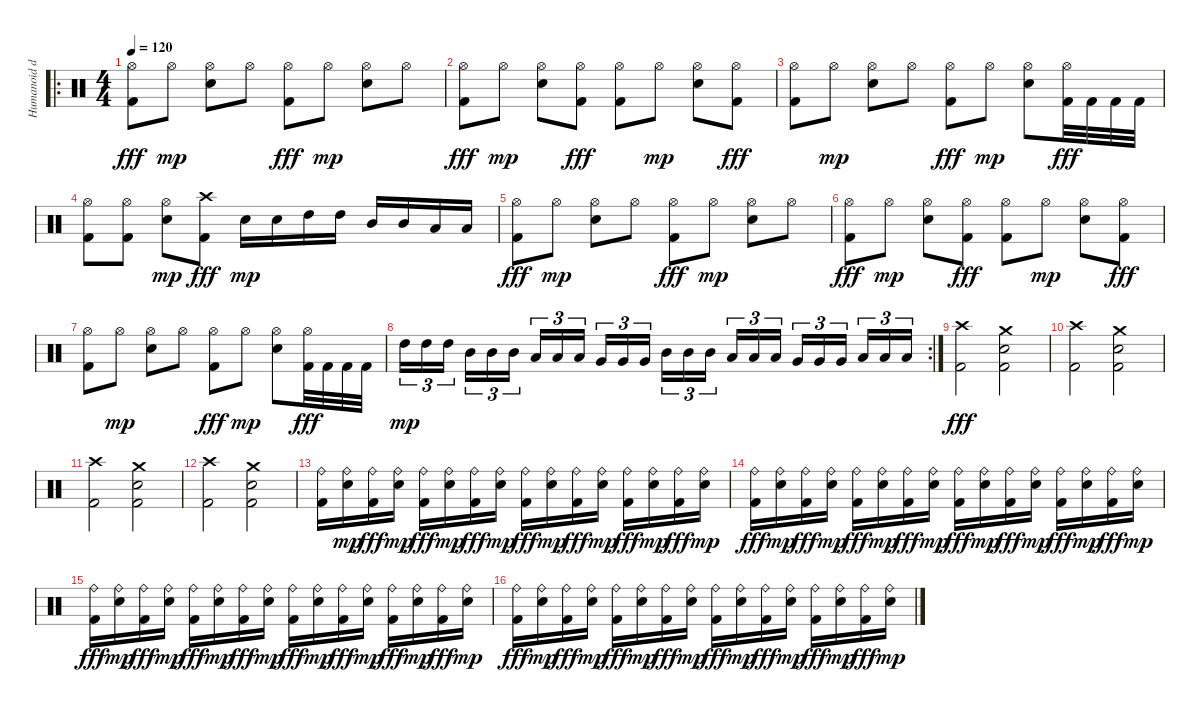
\track ("Humanoid drum machine" "Humanoid d") {instrument percussion}
\staff {score}
\articulation defaults
\ro
\ts (4 4)
\tempo 120
\clef neutral
\ks c
("Hi-Hat (open)" "Kick (hit) 2").8{dy fff} "Hi-Hat (open)".8{dy mp} ("Hi-Hat (open)" "Electric Snare (hit)").8 "Hi-Hat (open)".8 ("Hi-Hat (open)" "Kick (hit) 2").8{dy fff} "Hi-Hat (open)".8{dy mp} ("Hi-Hat (open)" "Electric Snare (hit)").8 "Hi-Hat (open)".8 |
("Hi-Hat (open)" "Kick (hit) 2").8{dy fff} "Hi-Hat (open)".8{dy mp} ("Hi-Hat (open)" "Electric Snare (hit)").8 ("Hi-Hat (open)" "Kick (hit) 2").8{dy fff} ("Hi-Hat (open)" "Kick (hit) 2").8 "Hi-Hat (open)".8{dy mp} ("Hi-Hat (open)" "Electric Snare (hit)").8 ("Hi-Hat (open)" "Kick (hit) 2").8{dy fff} |
("Hi-Hat (open)" "Kick (hit) 2").8 "Hi-Hat (open)".8{dy mp} ("Hi-Hat (open)" "Electric Snare (hit)").8 "Hi-Hat (open)".8 ("Hi-Hat (open)" "Kick (hit) 2").8{dy fff} "Hi-Hat (open)".8{dy mp} ("Hi-Hat (open)" "Electric Snare (hit)").8 ("Hi-Hat (open)" "Kick (hit) 2").32{dy fff} "Kick (hit) 2".32 "Kick (hit) 2".32 "Kick (hit) 2".32 |
("Hi-Hat (open)" "Kick (hit) 2").8 ("Hi-Hat (open)" "Kick (hit) 2").8 ("Hi-Hat (open)" "Electric Snare (hit)").8{dy mp} ("Crash high (hit)" "Kick (hit) 2").8{dy fff} "Electric Snare (hit)".16{dy mp} "Electric Snare (hit)".16 "High Tom (hit)".16 "High Tom (hit)".16 "Mid Tom (hit)".16 "Mid Tom (hit)".16 "Low Tom (hit)".16 "Low Tom (hit)".16 |
("Hi-Hat (open)" "Kick (hit) 2").8{dy fff} "Hi-Hat (open)".8{dy mp} ("Hi-Hat (open)" "Electric Snare (hit)").8 "Hi-Hat (open)".8 ("Hi-Hat (open)" "Kick (hit) 2").8{dy fff} "Hi-Hat (open)".8{dy mp} ("Hi-Hat (open)" "Electric Snare (hit)").8 "Hi-Hat (open)".8 |
("Hi-Hat (open)" "Kick (hit) 2").8{dy fff} "Hi-Hat (open)".8{dy mp} ("Hi-Hat (open)" "Electric Snare (hit)").8 ("Hi-Hat (open)" "Kick (hit) 2").8{dy fff} ("Hi-Hat (open)" "Kick (hit) 2").8 "Hi-Hat (open)".8{dy mp} ("Hi-Hat (open)" "Electric Snare (hit)").8 ("Hi-Hat (open)" "Kick (hit) 2").8{dy fff} |
("Hi-Hat (open)" "Kick (hit) 2").8 "Hi-Hat (open)".8{dy mp} ("Hi-Hat (open)" "Electric Snare (hit)").8 "Hi-Hat (open)".8 ("Hi-Hat (open)" "Kick (hit) 2").8{dy fff} "Hi-Hat (open)".8{dy mp} ("Hi-Hat (open)" "Electric Snare (hit)").8 ("Hi-Hat (open)" "Kick (hit) 2").32{dy fff} "Kick (hit) 2".32 "Kick (hit) 2".32 "Kick (hit) 2".32 |
\rc 2 "High Tom (hit)".16{tu (3 2) dy mp} "High Tom (hit)".16{tu (3 2)} "High Tom (hit)".16{tu (3 2)} "Mid Tom (hit)".16{tu (3 2)} "Mid Tom (hit)".16{tu (3 2)} "Mid Tom (hit)".16{tu (3 2)} "Low Tom (hit)".16{tu (3 2)} "Low Tom (hit)".16{tu (3 2)} "Low Tom (hit)".16{tu (3 2)} "Very Low Tom (hit)".16{tu (3 2)} "Very Low Tom (hit)".16{tu (3 2)} "Very Low Tom (hit)".16{tu (3 2)} "Mid Tom (hit)".16{tu (3 2)} "Mid Tom (hit)".16{tu (3 2)} "Mid Tom (hit)".16{tu (3 2)} "Low Tom (hit)".16{tu (3 2)} "Low Tom (hit)".16{tu (3 2)} "Low Tom (hit)".16{tu (3 2)} "Very Low Tom (hit)".16{tu (3 2)} "Very Low Tom (hit)".16{tu (3 2)} "Very Low Tom (hit)".16{tu (3 2)} "Low Floor Tom (hit)".16{tu (3 2)} "Low Floor Tom (hit)".16{tu (3 2)} "Low Floor Tom (hit)".16{tu (3 2)}
|
("Crash high (hit)" "Kick (hit) 2").2{dy fff} ("Crash medium (hit)" "Electric Snare (hit)" "Kick (hit) 2").2 |
("Crash high (hit)" "Kick (hit) 2").2 ("Crash medium (hit)" "Electric Snare (hit)" "Kick (hit) 2").2 |
("Crash high (hit)" "Kick (hit) 2").2 ("Crash medium (hit)" "Electric Snare (hit)" "Kick (hit) 2").2 |
("Crash high (hit)" "Kick (hit) 2").2 ("Crash medium (hit)" "Electric Snare (hit)" "Kick (hit) 2").2 |
("Ride (bell)" "Kick (hit) 2").16 ("Ride (bell)" "Electric Snare (hit)").16{dy mp} ("Ride (bell)" "Kick (hit) 2").16{dy fff} ("Ride (bell)" "Electric Snare (hit)").16{dy mp} ("Ride (bell)" "Kick (hit) 2").16{dy fff} ("Ride (bell)" "Electric Snare (hit)").16{dy mp} ("Ride (bell)" "Kick (hit) 2").16{dy fff} ("Ride (bell)" "Electric Snare (hit)").16{dy mp} ("Ride (bell)" "Kick (hit) 2").16{dy fff} ("Ride (bell)" "Electric Snare (hit)").16{dy mp} ("Ride (bell)" "Kick (hit) 2").16{dy fff} ("Ride (bell)" "Electric Snare (hit)").16{dy mp} ("Ride (bell)" "Kick (hit) 2").16{dy fff} ("Ride (bell)" "Electric Snare (hit)").16{dy mp} ("Ride (bell)" "Kick (hit) 2").16{dy fff} ("Ride (bell)" "Electric Snare (hit)").16{dy mp} |
("Ride (bell)" "Kick (hit) 2").16{dy fff} ("Ride (bell)" "Electric Snare (hit)").16{dy mp} ("Ride (bell)" "Kick (hit) 2").16{dy fff} ("Ride (bell)" "Electric Snare (hit)").16{dy mp} ("Ride (bell)" "Kick (hit) 2").16{dy fff} ("Ride (bell)" "Electric Snare (hit)").16{dy mp} ("Ride (bell)" "Kick (hit) 2").16{dy fff} ("Ride (bell)" "Electric Snare (hit)").16{dy mp} ("Ride (bell)" "Kick (hit) 2").16{dy fff} ("Ride (bell)" "Electric Snare (hit)").16{dy mp} ("Ride (bell)" "Kick (hit) 2").16{dy fff} ("Ride (bell)" "Electric Snare (hit)").16{dy mp} ("Ride (bell)" "Kick (hit) 2").16{dy fff} ("Ride (bell)" "Electric Snare (hit)").16{dy mp} ("Ride (bell)" "Kick (hit) 2").16{dy fff} ("Ride (bell)" "Electric Snare (hit)").16{dy mp} |
("Ride (bell)" "Kick (hit) 2").16{dy fff} ("Ride (bell)" "Electric Snare (hit)").16{dy mp} ("Ride (bell)" "Kick (hit) 2").16{dy fff} ("Ride (bell)" "Electric Snare (hit)").16{dy mp} ("Ride (bell)" "Kick (hit) 2").16{dy fff} ("Ride (bell)" "Electric Snare (hit)").16{dy mp} ("Ride (bell)" "Kick (hit) 2").16{dy fff} ("Ride (bell)" "Electric Snare (hit)").16{dy mp} ("Ride (bell)" "Kick (hit) 2").16{dy fff} ("Ride (bell)" "Electric Snare (hit)").16{dy mp} ("Ride (bell)" "Kick (hit) 2").16{dy fff} ("Ride (bell)" "Electric Snare (hit)").16{dy mp} ("Ride (bell)" "Kick (hit) 2").16{dy fff} ("Ride (bell)" "Electric Snare (hit)").16{dy mp} ("Ride (bell)" "Kick (hit) 2").16{dy fff} ("Ride (bell)" "Electric Snare (hit)").16{dy mp} |
("Ride (bell)" "Kick (hit) 2").16{dy fff} ("Ride (bell)" "Electric Snare (hit)").16{dy mp} ("Ride (bell)" "Kick (hit) 2").16{dy fff} ("Ride (bell)" "Electric Snare (hit)").16{dy mp} ("Ride (bell)" "Kick (hit) 2").16{dy fff} ("Ride (bell)" "Electric Snare (hit)").16{dy mp} ("Ride (bell)" "Kick (hit) 2").16{dy fff} ("Ride (bell)" "Electric Snare (hit)").16{dy mp} ("Ride (bell)" "Kick (hit) 2").16{dy fff} ("Ride (bell)" "Electric Snare (hit)").16{dy mp} ("Ride (bell)" "Kick (hit) 2").16{dy fff} ("Ride (bell)" "Electric Snare (hit)").16{dy mp} ("Ride (bell)" "Kick (hit) 2").16{dy fff} ("Ride (bell)" "Electric Snare (hit)").16{dy mp} ("Ride (bell)" "Kick (hit) 2").16{dy fff} ("Ride (bell)" "Electric Snare (hit)").16{dy mp}
